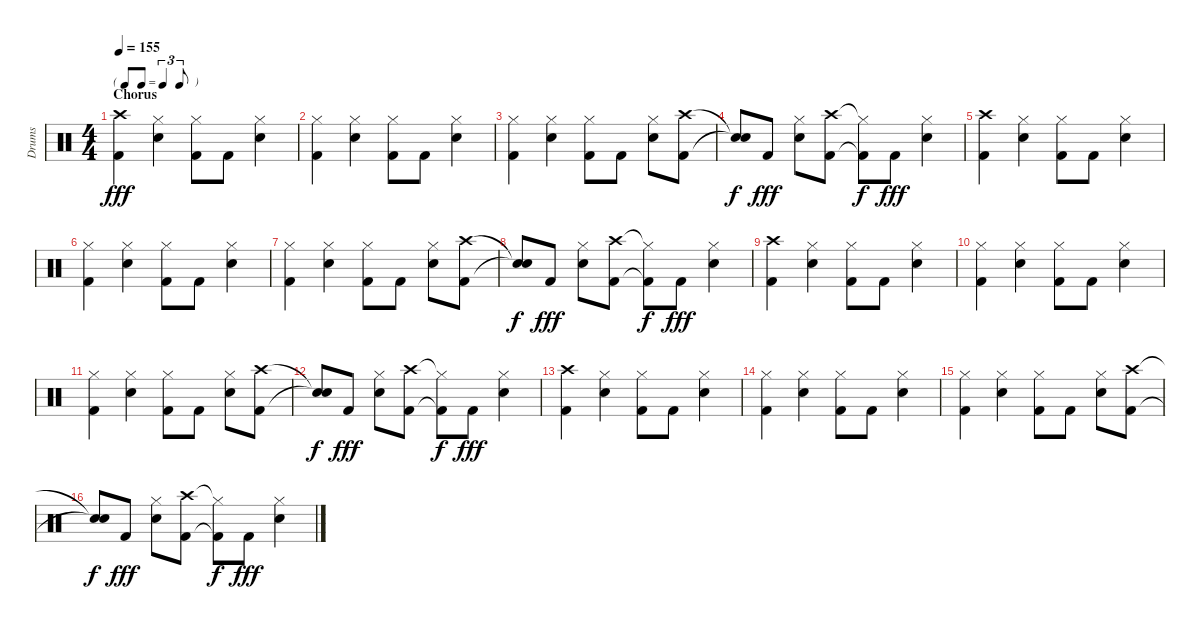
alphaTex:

\track ("Drums" "Drums") {instrument percussion}
\staff {score}
\articulation defaults
\ts (4 4)
\tf triplet8th
\section ("" "Chorus")
\tempo 155
\clef neutral
\ks c
("Crash high (hit)" "Kick (hit) 2").4{dy fff} ("Hi-Hat (closed)" "Snare (hit) 2").4 ("Hi-Hat (closed)" "Kick (hit) 2").8 "Kick (hit) 2".8 ("Hi-Hat (closed)" "Snare (hit) 2").4 |
("Hi-Hat (closed)" "Kick (hit) 2").4 ("Hi-Hat (closed)" "Snare (hit) 2").4 ("Hi-Hat (closed)" "Kick (hit) 2").8 "Kick (hit) 2".8 ("Hi-Hat (closed)" "Snare (hit) 2").4 |
("Hi-Hat (closed)" "Kick (hit) 2").4 ("Hi-Hat (closed)" "Snare (hit) 2").4 ("Hi-Hat (closed)" "Kick (hit) 2").8 "Kick (hit) 2".8 ("Hi-Hat (closed)" "Snare (hit) 2").8 ("Crash high (hit)" "Kick (hit) 2").8 |
("Snare (hit)"{t} "Snare (hit)"{t}).8{dy f} "Kick (hit) 2".8{dy fff} ("Hi-Hat (closed)" "Snare (hit) 2").8 ("Crash high (hit)" "Kick (hit) 2").8 ("Hi-Hat (closed)"{t} "Kick (hit) 2"{t}).8{dy f} "Kick (hit) 2".8{dy fff} ("Hi-Hat (closed)" "Snare (hit) 2").4 |
("Crash high (hit)" "Kick (hit) 2").4 ("Hi-Hat (closed)" "Snare (hit) 2").4 ("Hi-Hat (closed)" "Kick (hit) 2").8 "Kick (hit) 2".8 ("Hi-Hat (closed)" "Snare (hit) 2").4 |
("Hi-Hat (closed)" "Kick (hit) 2").4 ("Hi-Hat (closed)" "Snare (hit) 2").4 ("Hi-Hat (closed)" "Kick (hit) 2").8 "Kick (hit) 2".8 ("Hi-Hat (closed)" "Snare (hit) 2").4 |
("Hi-Hat (closed)" "Kick (hit) 2").4 ("Hi-Hat (closed)" "Snare (hit) 2").4 ("Hi-Hat (closed)" "Kick (hit) 2").8 "Kick (hit) 2".8 ("Hi-Hat (closed)" "Snare (hit) 2").8 ("Crash high (hit)" "Kick (hit) 2").8 |
("Snare (hit)"{t} "Snare (hit)"{t}).8{dy f} "Kick (hit) 2".8{dy fff} ("Hi-Hat (closed)" "Snare (hit) 2").8 ("Crash high (hit)" "Kick (hit) 2").8 ("Hi-Hat (closed)"{t} "Kick (hit) 2"{t}).8{dy f} "Kick (hit) 2".8{dy fff} ("Hi-Hat (closed)" "Snare (hit) 2").4 |
("Crash high (hit)" "Kick (hit) 2").4 ("Hi-Hat (closed)" "Snare (hit) 2").4 ("Hi-Hat (closed)" "Kick (hit) 2").8 "Kick (hit) 2".8 ("Hi-Hat (closed)" "Snare (hit) 2").4 |
("Hi-Hat (closed)" "Kick (hit) 2").4 ("Hi-Hat (closed)" "Snare (hit) 2").4 ("Hi-Hat (closed)" "Kick (hit) 2").8 "Kick (hit) 2".8 ("Hi-Hat (closed)" "Snare (hit) 2").4 |
("Hi-Hat (closed)" "Kick (hit) 2").4 ("Hi-Hat (closed)" "Snare (hit) 2").4 ("Hi-Hat (closed)" "Kick (hit) 2").8 "Kick (hit) 2".8 ("Hi-Hat (closed)" "Snare (hit) 2").8 ("Crash high (hit)" "Kick (hit) 2").8 |
("Snare (hit)"{t} "Snare (hit)"{t}).8{dy f} "Kick (hit) 2".8{dy fff} ("Hi-Hat (closed)" "Snare (hit) 2").8 ("Crash high (hit)" "Kick (hit) 2").8 ("Hi-Hat (closed)"{t} "Kick (hit) 2"{t}).8{dy f} "Kick (hit) 2".8{dy fff} ("Hi-Hat (closed)" "Snare (hit) 2").4 |
("Crash high (hit)" "Kick (hit) 2").4 ("Hi-Hat (closed)" "Snare (hit) 2").4 ("Hi-Hat (closed)" "Kick (hit) 2").8 "Kick (hit) 2".8 ("Hi-Hat (closed)" "Snare (hit) 2").4 |
("Hi-Hat (closed)" "Kick (hit) 2").4 ("Hi-Hat (closed)" "Snare (hit) 2").4 ("Hi-Hat (closed)" "Kick (hit) 2").8 "Kick (hit) 2".8 ("Hi-Hat (closed)" "Snare (hit) 2").4 |
("Hi-Hat (closed)" "Kick (hit) 2").4 ("Hi-Hat (closed)" "Snare (hit) 2").4 ("Hi-Hat (closed)" "Kick (hit) 2").8 "Kick (hit) 2".8 ("Hi-Hat (closed)" "Snare (hit) 2").8 ("Crash high (hit)" "Kick (hit) 2").8 |
("Snare (hit)"{t} "Snare (hit)"{t}).8{dy f} "Kick (hit) 2".8{dy fff} ("Hi-Hat (closed)" "Snare (hit) 2").8 ("Crash high (hit)" "Kick (hit) 2").8 ("Hi-Hat (closed)"{t} "Kick (hit) 2"{t}).8{dy f} "Kick (hit) 2".8{dy fff} ("Hi-Hat (closed)" "Snare (hit) 2").4
